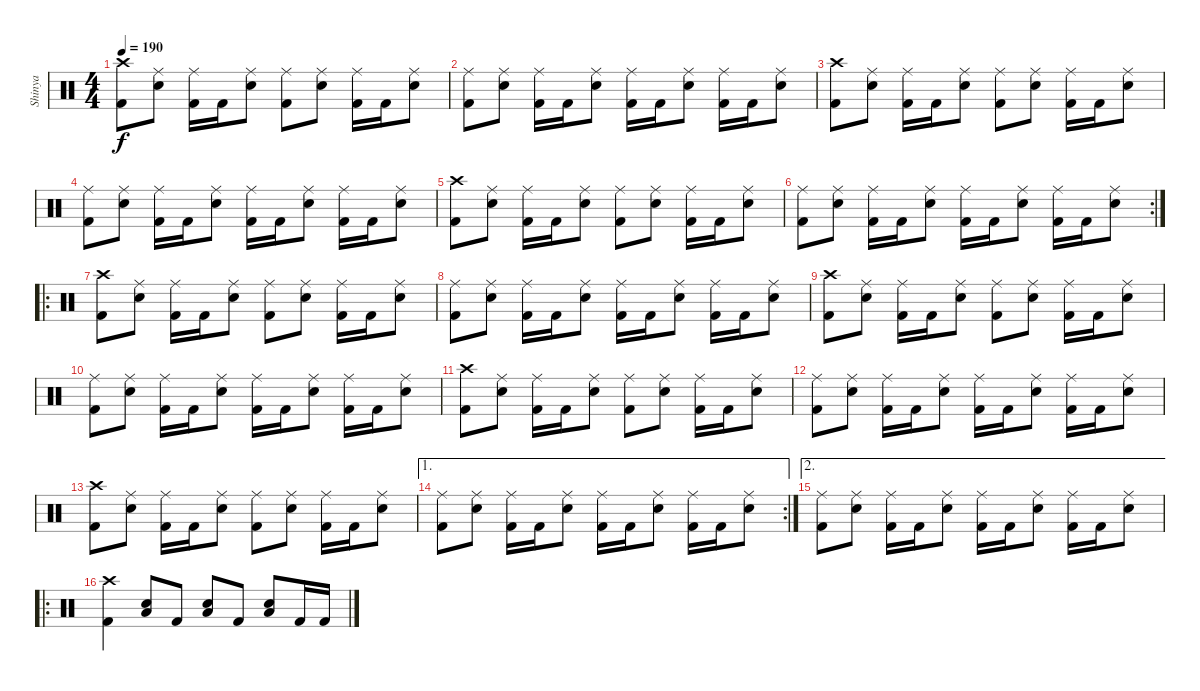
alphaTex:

\track ("Shinya" "Shinya") {instrument percussion}
\staff {score}
\articulation defaults
\ts (4 4)
\tempo 190
\clef neutral
\ks c
("Crash high (hit)" "Kick (hit) 2").8{dy f} ("Ride (middle)" "Electric Snare (hit)").8 ("Ride (middle)" "Kick (hit) 2").16 "Kick (hit) 2".16 ("Ride (middle)" "Electric Snare (hit)").8 ("Ride (middle)" "Kick (hit) 2").8 ("Ride (middle)" "Electric Snare (hit)").8 ("Ride (middle)" "Kick (hit) 2").16 "Kick (hit) 2".16 ("Ride (middle)" "Electric Snare (hit)").8 |
("Ride (middle)" "Kick (hit) 2").8 ("Ride (middle)" "Electric Snare (hit)").8 ("Ride (middle)" "Kick (hit) 2").16 "Kick (hit) 2".16 ("Ride (middle)" "Electric Snare (hit)").8 ("Ride (middle)" "Kick (hit) 2").16 "Kick (hit) 2".16 ("Ride (middle)" "Electric Snare (hit)").8 ("Ride (middle)" "Kick (hit) 2").16 "Kick (hit) 2".16 ("Ride (middle)" "Electric Snare (hit)").8 |
("Crash high (hit)" "Kick (hit) 2").8 ("Ride (middle)" "Electric Snare (hit)").8 ("Ride (middle)" "Kick (hit) 2").16 "Kick (hit) 2".16 ("Ride (middle)" "Electric Snare (hit)").8 ("Ride (middle)" "Kick (hit) 2").8 ("Ride (middle)" "Electric Snare (hit)").8 ("Ride (middle)" "Kick (hit) 2").16 "Kick (hit) 2".16 ("Ride (middle)" "Electric Snare (hit)").8 |
("Ride (middle)" "Kick (hit) 2").8 ("Ride (middle)" "Electric Snare (hit)").8 ("Ride (middle)" "Kick (hit) 2").16 "Kick (hit) 2".16 ("Ride (middle)" "Electric Snare (hit)").8 ("Ride (middle)" "Kick (hit) 2").16 "Kick (hit) 2".16 ("Ride (middle)" "Electric Snare (hit)").8 ("Ride (middle)" "Kick (hit) 2").16 "Kick (hit) 2".16 ("Ride (middle)" "Electric Snare (hit)").8 |
("Crash high (hit)" "Kick (hit) 2").8 ("Ride (middle)" "Electric Snare (hit)").8 ("Ride (middle)" "Kick (hit) 2").16 "Kick (hit) 2".16 ("Ride (middle)" "Electric Snare (hit)").8 ("Ride (middle)" "Kick (hit) 2").8 ("Ride (middle)" "Electric Snare (hit)").8 ("Ride (middle)" "Kick (hit) 2").16 "Kick (hit) 2".16 ("Ride (middle)" "Electric Snare (hit)").8 |
\rc 2
("Ride (middle)" "Kick (hit) 2").8 ("Ride (middle)" "Electric Snare (hit)").8 ("Ride (middle)" "Kick (hit) 2").16 "Kick (hit) 2".16 ("Ride (middle)" "Electric Snare (hit)").8 ("Ride (middle)" "Kick (hit) 2").16 "Kick (hit) 2".16 ("Ride (middle)" "Electric Snare (hit)").8 ("Ride (middle)" "Kick (hit) 2").16 "Kick (hit) 2".16 ("Ride (middle)" "Electric Snare (hit)").8 |
\ro
("Crash high (hit)" "Kick (hit) 2").8 ("Ride (middle)" "Electric Snare (hit)").8 ("Ride (middle)" "Kick (hit) 2").16 "Kick (hit) 2".16 ("Ride (middle)" "Electric Snare (hit)").8 ("Ride (middle)" "Kick (hit) 2").8 ("Ride (middle)" "Electric Snare (hit)").8 ("Ride (middle)" "Kick (hit) 2").16 "Kick (hit) 2".16 ("Ride (middle)" "Electric Snare (hit)").8 |
("Ride (middle)" "Kick (hit) 2").8 ("Ride (middle)" "Electric Snare (hit)").8 ("Ride (middle)" "Kick (hit) 2").16 "Kick (hit) 2".16 ("Ride (middle)" "Electric Snare (hit)").8 ("Ride (middle)" "Kick (hit) 2").16 "Kick (hit) 2".16 ("Ride (middle)" "Electric Snare (hit)").8 ("Ride (middle)" "Kick (hit) 2").16 "Kick (hit) 2".16 ("Ride (middle)" "Electric Snare (hit)").8 |
("Crash high (hit)" "Kick (hit) 2").8 ("Ride (middle)" "Electric Snare (hit)").8 ("Ride (middle)" "Kick (hit) 2").16 "Kick (hit) 2".16 ("Ride (middle)" "Electric Snare (hit)").8 ("Ride (middle)" "Kick (hit) 2").8 ("Ride (middle)" "Electric Snare (hit)").8 ("Ride (middle)" "Kick (hit) 2").16 "Kick (hit) 2".16 ("Ride (middle)" "Electric Snare (hit)").8 |
("Ride (middle)" "Kick (hit) 2").8 ("Ride (middle)" "Electric Snare (hit)").8 ("Ride (middle)" "Kick (hit) 2").16 "Kick (hit) 2".16 ("Ride (middle)" "Electric Snare (hit)").8 ("Ride (middle)" "Kick (hit) 2").16 "Kick (hit) 2".16 ("Ride (middle)" "Electric Snare (hit)").8 ("Ride (middle)" "Kick (hit) 2").16 "Kick (hit) 2".16 ("Ride (middle)" "Electric Snare (hit)").8 |
("Crash high (hit)" "Kick (hit) 2").8 ("Ride (middle)" "Electric Snare (hit)").8 ("Ride (middle)" "Kick (hit) 2").16 "Kick (hit) 2".16 ("Ride (middle)" "Electric Snare (hit)").8 ("Ride (middle)" "Kick (hit) 2").8 ("Ride (middle)" "Electric Snare (hit)").8 ("Ride (middle)" "Kick (hit) 2").16 "Kick (hit) 2".16 ("Ride (middle)" "Electric Snare (hit)").8 |
("Ride (middle)" "Kick (hit) 2").8 ("Ride (middle)" "Electric Snare (hit)").8 ("Ride (middle)" "Kick (hit) 2").16 "Kick (hit) 2".16 ("Ride (middle)" "Electric Snare (hit)").8 ("Ride (middle)" "Kick (hit) 2").16 "Kick (hit) 2".16 ("Ride (middle)" "Electric Snare (hit)").8 ("Ride (middle)" "Kick (hit) 2").16 "Kick (hit) 2".16 ("Ride (middle)" "Electric Snare (hit)").8 |
("Crash high (hit)" "Kick (hit) 2").8 ("Ride (middle)" "Electric Snare (hit)").8 ("Ride (middle)" "Kick (hit) 2").16 "Kick (hit) 2".16 ("Ride (middle)" "Electric Snare (hit)").8 ("Ride (middle)" "Kick (hit) 2").8 ("Ride (middle)" "Electric Snare (hit)").8 ("Ride (middle)" "Kick (hit) 2").16 "Kick (hit) 2".16 ("Ride (middle)" "Electric Snare (hit)").8 |
\ae 1
\rc 2
("Ride (middle)" "Kick (hit) 2").8 ("Ride (middle)" "Electric Snare (hit)").8 ("Ride (middle)" "Kick (hit) 2").16 "Kick (hit) 2".16 ("Ride (middle)" "Electric Snare (hit)").8 ("Ride (middle)" "Kick (hit) 2").16 "Kick (hit) 2".16 ("Ride (middle)" "Electric Snare (hit)").8 ("Ride (middle)" "Kick (hit) 2").16 "Kick (hit) 2".16 ("Ride (middle)" "Electric Snare (hit)").8 |
\ae 2
("Ride (middle)" "Kick (hit) 2").8 ("Ride (middle)" "Electric Snare (hit)").8 ("Ride (middle)" "Kick (hit) 2").16 "Kick (hit) 2".16 ("Ride (middle)" "Electric Snare (hit)").8 ("Ride (middle)" "Kick (hit) 2").16 "Kick (hit) 2".16 ("Ride (middle)" "Electric Snare (hit)").8 ("Ride (middle)" "Kick (hit) 2").16 "Kick (hit) 2".16 ("Ride (middle)" "Electric Snare (hit)").8 |
\ro
("Crash high (hit)" "Kick (hit) 2").4 ("Low Floor Tom (hit)" "Electric Snare (hit)").8 "Kick (hit) 2".8 ("Low Floor Tom (hit)" "Electric Snare (hit)").8 "Kick (hit) 2".8 ("Low Floor Tom (hit)" "Electric Snare (hit)").8 "Kick (hit) 2".16 "Kick (hit) 2".16
